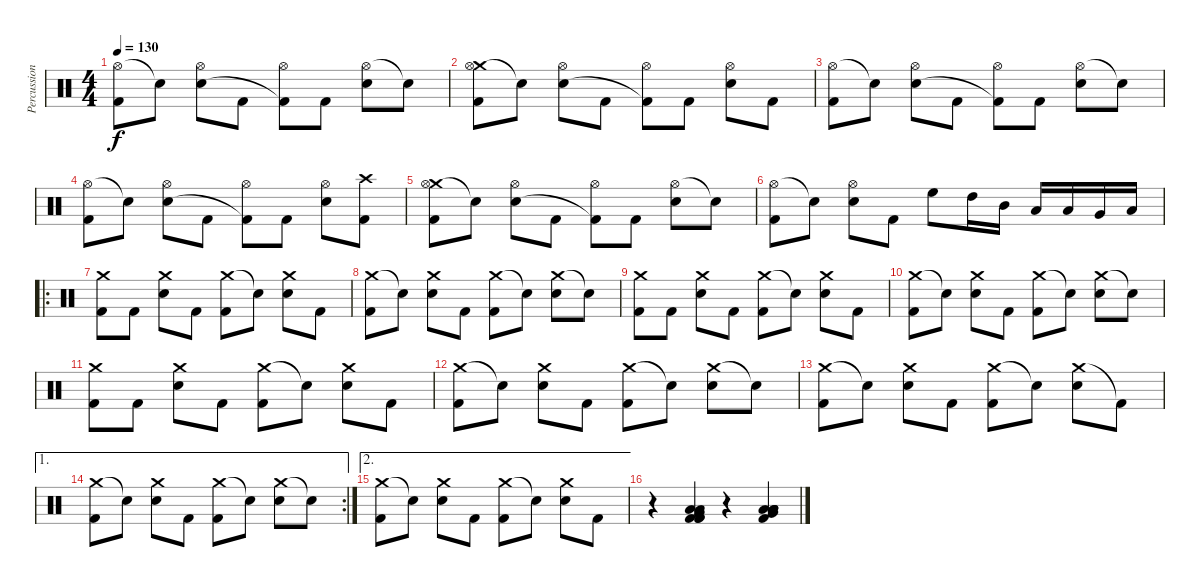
\track ("Percussion" "Percussion") {instrument percussion}
\staff {score}
\articulation defaults
\ts (4 4)
\tempo 130
\clef neutral
\ks c
("Hi-Hat (open)" "Kick (hit) 2").8{dy f} "Snare (hit)"{t}.8 ("Hi-Hat (open)" "Electric Snare (hit)").8 "Kick (hit) 2".8 ("Hi-Hat (open)" "Kick (hit) 2"{t}).8 "Kick (hit) 2".8 ("Hi-Hat (open)" "Electric Snare (hit)").8 "Snare (hit)"{t}.8 |
("Crash medium (hit)" "Hi-Hat (open)" "Kick (hit) 2").8 "Snare (hit)"{t}.8 ("Hi-Hat (open)" "Electric Snare (hit)").8 "Kick (hit) 2".8 ("Hi-Hat (open)" "Kick (hit) 2"{t}).8 "Kick (hit) 2".8 ("Hi-Hat (open)" "Electric Snare (hit)").8 "Kick (hit) 2".8 |
("Hi-Hat (open)" "Kick (hit) 2").8 "Snare (hit)"{t}.8 ("Hi-Hat (open)" "Electric Snare (hit)").8 "Kick (hit) 2".8 ("Hi-Hat (open)" "Kick (hit) 2"{t}).8 "Kick (hit) 2".8 ("Hi-Hat (open)" "Electric Snare (hit)").8 "Snare (hit)"{t}.8 |
("Hi-Hat (open)" "Kick (hit) 2").8 "Snare (hit)"{t}.8 ("Hi-Hat (open)" "Electric Snare (hit)").8 "Kick (hit) 2".8 ("Hi-Hat (open)" "Kick (hit) 2"{t}).8 "Kick (hit) 2".8 ("Hi-Hat (open)" "Electric Snare (hit)").8 ("Crash high (hit)" "Kick (hit) 2").8 |
("Crash medium (hit)" "Hi-Hat (open)" "Kick (hit) 2").8 "Snare (hit)"{t}.8 ("Hi-Hat (open)" "Electric Snare (hit)").8 "Kick (hit) 2".8 ("Hi-Hat (open)" "Kick (hit) 2"{t}).8 "Kick (hit) 2".8 ("Hi-Hat (open)" "Electric Snare (hit)").8 "Snare (hit)"{t}.8 |
("Hi-Hat (open)" "Kick (hit) 2").8 "Snare (hit)"{t}.8 ("Hi-Hat (open)" "Electric Snare (hit)").8 "Kick (hit) 2".8 "High Floor Tom (hit)".8 "High Tom (hit)".16 "Mid Tom (hit)".16 "Low Tom (hit)".16 "Low Tom (hit)".16 "Very Low Tom (hit)".16 "Low Floor Tom (hit)".16 |
\ro
("Crash medium (hit)" "Kick (hit) 2").8 "Kick (hit) 2".8 ("Crash medium (hit)" "Electric Snare (hit)").8 "Kick (hit) 2".8 ("Crash medium (hit)" "Kick (hit) 2").8 "Snare (hit)"{t}.8 ("Crash medium (hit)" "Electric Snare (hit)").8 "Kick (hit) 2".8 |
("Crash medium (hit)" "Kick (hit) 2").8 "Snare (hit)"{t}.8 ("Crash medium (hit)" "Electric Snare (hit)").8 "Kick (hit) 2".8 ("Crash medium (hit)" "Kick (hit) 2").8 "Snare (hit)"{t}.8 ("Crash medium (hit)" "Electric Snare (hit)").8 "Snare (hit)"{t}.8 |
("Crash medium (hit)" "Kick (hit) 2").8 "Kick (hit) 2".8 ("Crash medium (hit)" "Electric Snare (hit)").8 "Kick (hit) 2".8 ("Crash medium (hit)" "Kick (hit) 2").8 "Snare (hit)"{t}.8 ("Crash medium (hit)" "Electric Snare (hit)").8 "Kick (hit) 2".8 |
("Crash medium (hit)" "Kick (hit) 2").8 "Snare (hit)"{t}.8 ("Crash medium (hit)" "Electric Snare (hit)").8 "Kick (hit) 2".8 ("Crash medium (hit)" "Kick (hit) 2").8 "Snare (hit)"{t}.8 ("Crash medium (hit)" "Electric Snare (hit)").8 "Snare (hit)"{t}.8 |
("Crash medium (hit)" "Kick (hit) 2").8 "Kick (hit) 2".8 ("Crash medium (hit)" "Electric Snare (hit)").8 "Kick (hit) 2".8 ("Crash medium (hit)" "Kick (hit) 2").8 "Snare (hit)"{t}.8 ("Crash medium (hit)" "Electric Snare (hit)").8 "Kick (hit) 2".8 |
("Crash medium (hit)" "Kick (hit) 2").8 "Snare (hit)"{t}.8 ("Crash medium (hit)" "Electric Snare (hit)").8 "Kick (hit) 2".8 ("Crash medium (hit)" "Kick (hit) 2").8 "Snare (hit)"{t}.8 ("Crash medium (hit)" "Electric Snare (hit)").8 "Snare (hit)"{t}.8 |
("Crash medium (hit)" "Kick (hit) 2").8 "Snare (hit)"{t}.8 ("Crash medium (hit)" "Electric Snare (hit)").8 "Kick (hit) 2".8 ("Crash medium (hit)" "Kick (hit) 2").8 "Snare (hit)"{t}.8 ("Crash medium (hit)" "Electric Snare (hit)").8 "Kick (hit) 2"{t}.8 |
\ae 1
\rc 2
("Crash medium (hit)" "Kick (hit) 2").8 "Electric Snare (hit)"{t}.8 ("Crash medium (hit)" "Electric Snare (hit)").8 "Kick (hit) 2".8 ("Crash medium (hit)" "Kick (hit) 2").8 "Electric Snare (hit)"{t}.8 ("Crash medium (hit)" "Electric Snare (hit)").8 "Snare (hit)"{t}.8 |
\ae 2
("Crash medium (hit)" "Kick (hit) 2").8 "Snare (hit)"{t}.8 ("Crash medium (hit)" "Electric Snare (hit)").8 "Kick (hit) 2".8 ("Crash medium (hit)" "Kick (hit) 2").8 "Snare (hit)"{t}.8 ("Crash medium (hit)" "Electric Snare (hit)").8 "Kick (hit) 2".8 |
r.4 ("Kick (hit) 2" "Kick (hit) 2" "Kick (hit) 2" "Low Tom (hit)" "Very Low Tom (hit)" "Low Floor Tom (hit)").4 r.4 ("Low Floor Tom (hit)" "Low Floor Tom (hit)" "Kick (hit) 2" "Low Tom (hit)" "Very Low Tom (hit)" "Low Floor Tom (hit)").4
